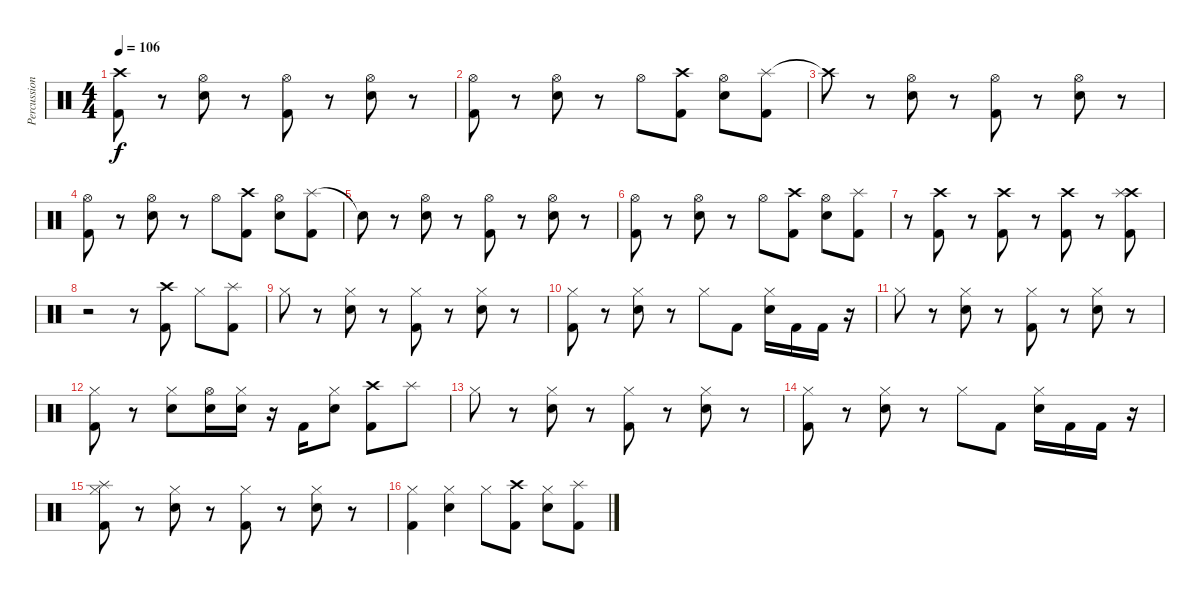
\track ("Percussion" "Percussion") {instrument percussion}
\staff {score}
\articulation defaults
\ts (4 4)
\tempo 106
\clef neutral
\ks c
("Crash high (hit)" "Kick (hit) 2").8{dy f} r.8 ("Hi-Hat (open)" "Snare (hit) 2").8 r.8 ("Hi-Hat (open)" "Kick (hit) 2").8 r.8 ("Hi-Hat (open)" "Snare (hit) 2").8 r.8 |
("Hi-Hat (open)" "Kick (hit) 2").8 r.8 ("Hi-Hat (open)" "Snare (hit) 2").8 r.8 "Hi-Hat (open)".8 ("Crash high (hit)" "Kick (hit) 2").8 ("Hi-Hat (open)" "Snare (hit) 2").8 ("Splash (hit)" "Kick (hit) 2").8 |
"Crash high (hit)"{t}.8 r.8 ("Hi-Hat (open)" "Snare (hit) 2").8 r.8 ("Hi-Hat (open)" "Kick (hit) 2").8 r.8 ("Hi-Hat (open)" "Snare (hit) 2").8 r.8 |
("Hi-Hat (open)" "Kick (hit) 2").8 r.8 ("Hi-Hat (open)" "Snare (hit) 2").8 r.8 "Hi-Hat (open)".8 ("Crash high (hit)" "Kick (hit) 2").8 ("Hi-Hat (open)" "Snare (hit) 2").8 ("Splash (hit)" "Kick (hit) 2").8 |
"Snare (hit)"{t}.8 r.8 ("Hi-Hat (open)" "Snare (hit) 2").8 r.8 ("Hi-Hat (open)" "Kick (hit) 2").8 r.8 ("Hi-Hat (open)" "Snare (hit) 2").8 r.8 |
("Hi-Hat (open)" "Kick (hit) 2").8 r.8 ("Hi-Hat (open)" "Snare (hit) 2").8 r.8 "Hi-Hat (open)".8 ("Crash high (hit)" "Kick (hit) 2").8 ("Hi-Hat (open)" "Snare (hit) 2").8 ("Splash (hit)" "Kick (hit) 2").8 |
r.8 ("Crash high (hit)" "Kick (hit) 2").8 r.8 ("Crash high (hit)" "Kick (hit) 2").8 r.8 ("Crash high (hit)" "Kick (hit) 2").8 r.8 ("Crash high (hit)" "Splash (hit)" "Kick (hit) 2").8 |
r.2 r.8 ("Crash high (hit)" "Kick (hit) 2").8 "Hi-Hat (closed)".8 ("Splash (hit)" "Kick (hit) 2").8 |
"Hi-Hat (closed)".8 r.8 ("Hi-Hat (closed)" "Snare (hit) 2").8 r.8 ("Hi-Hat (closed)" "Kick (hit) 2").8 r.8 ("Hi-Hat (closed)" "Snare (hit) 2").8 r.8 |
("Hi-Hat (closed)" "Kick (hit) 2").8 r.8 ("Hi-Hat (closed)" "Snare (hit) 2").8 r.8 "Hi-Hat (closed)".8 "Kick (hit) 2".8 ("Hi-Hat (closed)" "Snare (hit) 2").16 "Kick (hit) 2".16 "Kick (hit) 2".16 r.16 |
"Hi-Hat (closed)".8 r.8 ("Hi-Hat (closed)" "Snare (hit) 2").8 r.8 ("Hi-Hat (closed)" "Kick (hit) 2").8 r.8 ("Hi-Hat (closed)" "Snare (hit) 2").8 r.8 |
("Hi-Hat (closed)" "Kick (hit) 2").8 r.8 ("Hi-Hat (closed)" "Snare (hit) 2").8 ("Hi-Hat (open)" "Snare (hit) 2").16 ("Hi-Hat (closed)" "Snare (hit) 2").16 r.16 "Kick (hit) 2".16 ("Hi-Hat (closed)" "Snare (hit) 2").8 ("Crash high (hit)" "Kick (hit) 2").8 "Splash (hit)".8 |
"Hi-Hat (closed)".8 r.8 ("Hi-Hat (closed)" "Snare (hit) 2").8 r.8 ("Hi-Hat (closed)" "Kick (hit) 2").8 r.8 ("Hi-Hat (closed)" "Snare (hit) 2").8 r.8 |
("Hi-Hat (closed)" "Kick (hit) 2").8 r.8 ("Hi-Hat (closed)" "Snare (hit) 2").8 r.8 "Hi-Hat (closed)".8 "Kick (hit) 2".8 ("Hi-Hat (closed)" "Snare (hit) 2").16 "Kick (hit) 2".16 "Kick (hit) 2".16 r.16 |
("Hi-Hat (closed)" "Splash (hit)" "Kick (hit) 2").8 r.8 ("Hi-Hat (closed)" "Snare (hit) 2").8 r.8 ("Hi-Hat (closed)" "Kick (hit) 2").8 r.8 ("Hi-Hat (closed)" "Snare (hit) 2").8 r.8 |
("Hi-Hat (closed)" "Kick (hit) 2").4 ("Hi-Hat (closed)" "Snare (hit) 2").4 "Hi-Hat (closed)".8 ("Crash high (hit)" "Kick (hit) 2").8 ("Hi-Hat (closed)" "Snare (hit) 2").8 ("Splash (hit)" "Kick (hit) 2").8
